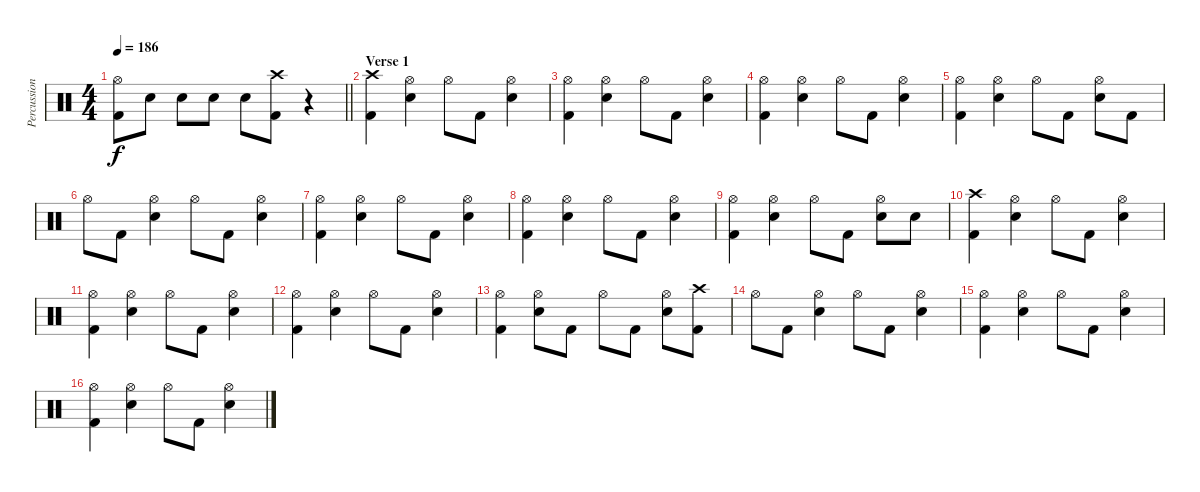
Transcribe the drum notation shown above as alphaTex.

\track ("Percussion" "Percussion") {instrument percussion}
\staff {score}
\articulation defaults
\ts (4 4)
\tempo 186
\clef neutral
\barLineRight lightlight
\ks c
("Hi-Hat (open)" "Kick (hit) 2").8{dy f} "Snare (hit) 2".8 "Snare (hit) 2".8 "Snare (hit) 2".8 "Snare (hit) 2".8 ("Crash high (hit)" "Kick (hit) 2").8 r.4 |
\section ("" "Verse 1")
("Crash high (hit)" "Kick (hit) 2").4 ("Hi-Hat (open)" "Snare (hit) 2").4 "Hi-Hat (open)".8 "Kick (hit) 2".8 ("Hi-Hat (open)" "Snare (hit) 2").4 |
("Hi-Hat (open)" "Kick (hit) 2").4 ("Hi-Hat (open)" "Snare (hit) 2").4 "Hi-Hat (open)".8 "Kick (hit) 2".8 ("Hi-Hat (open)" "Snare (hit) 2").4 |
("Hi-Hat (open)" "Kick (hit) 2").4 ("Hi-Hat (open)" "Snare (hit) 2").4 "Hi-Hat (open)".8 "Kick (hit) 2".8 ("Hi-Hat (open)" "Snare (hit) 2").4 |
("Hi-Hat (open)" "Kick (hit) 2").4 ("Hi-Hat (open)" "Snare (hit) 2").4 "Hi-Hat (open)".8 "Kick (hit) 2".8 ("Hi-Hat (open)" "Snare (hit) 2").8 "Kick (hit) 2".8 |
"Hi-Hat (open)".8 "Kick (hit) 2".8 ("Hi-Hat (open)" "Snare (hit) 2").4 "Hi-Hat (open)".8 "Kick (hit) 2".8 ("Hi-Hat (open)" "Snare (hit) 2").4 |
("Hi-Hat (open)" "Kick (hit) 2").4 ("Hi-Hat (open)" "Snare (hit) 2").4 "Hi-Hat (open)".8 "Kick (hit) 2".8 ("Hi-Hat (open)" "Snare (hit) 2").4 |
("Hi-Hat (open)" "Kick (hit) 2").4 ("Hi-Hat (open)" "Snare (hit) 2").4 "Hi-Hat (open)".8 "Kick (hit) 2".8 ("Hi-Hat (open)" "Snare (hit) 2").4 |
("Hi-Hat (open)" "Kick (hit) 2").4 ("Hi-Hat (open)" "Snare (hit) 2").4 "Hi-Hat (open)".8 "Kick (hit) 2".8 ("Hi-Hat (open)" "Snare (hit) 2").8 "Snare (hit) 2".8 |
("Crash high (hit)" "Kick (hit) 2").4 ("Hi-Hat (open)" "Snare (hit) 2").4 "Hi-Hat (open)".8 "Kick (hit) 2".8 ("Hi-Hat (open)" "Snare (hit) 2").4 |
("Hi-Hat (open)" "Kick (hit) 2").4 ("Hi-Hat (open)" "Snare (hit) 2").4 "Hi-Hat (open)".8 "Kick (hit) 2".8 ("Hi-Hat (open)" "Snare (hit) 2").4 |
("Hi-Hat (open)" "Kick (hit) 2").4 ("Hi-Hat (open)" "Snare (hit) 2").4 "Hi-Hat (open)".8 "Kick (hit) 2".8 ("Hi-Hat (open)" "Snare (hit) 2").4 |
("Hi-Hat (open)" "Kick (hit) 2").4 ("Hi-Hat (open)" "Snare (hit) 2").8 "Kick (hit) 2".8 "Hi-Hat (open)".8 "Kick (hit) 2".8 ("Hi-Hat (open)" "Snare (hit) 2").8 ("Crash high (hit)" "Kick (hit) 2").8 |
"Hi-Hat (open)".8 "Kick (hit) 2".8 ("Hi-Hat (open)" "Snare (hit) 2").4 "Hi-Hat (open)".8 "Kick (hit) 2".8 ("Hi-Hat (open)" "Snare (hit) 2").4 |
("Hi-Hat (open)" "Kick (hit) 2").4 ("Hi-Hat (open)" "Snare (hit) 2").4 "Hi-Hat (open)".8 "Kick (hit) 2".8 ("Hi-Hat (open)" "Snare (hit) 2").4 |
("Hi-Hat (open)" "Kick (hit) 2").4 ("Hi-Hat (open)" "Snare (hit) 2").4 "Hi-Hat (open)".8 "Kick (hit) 2".8 ("Hi-Hat (open)" "Snare (hit) 2").4
